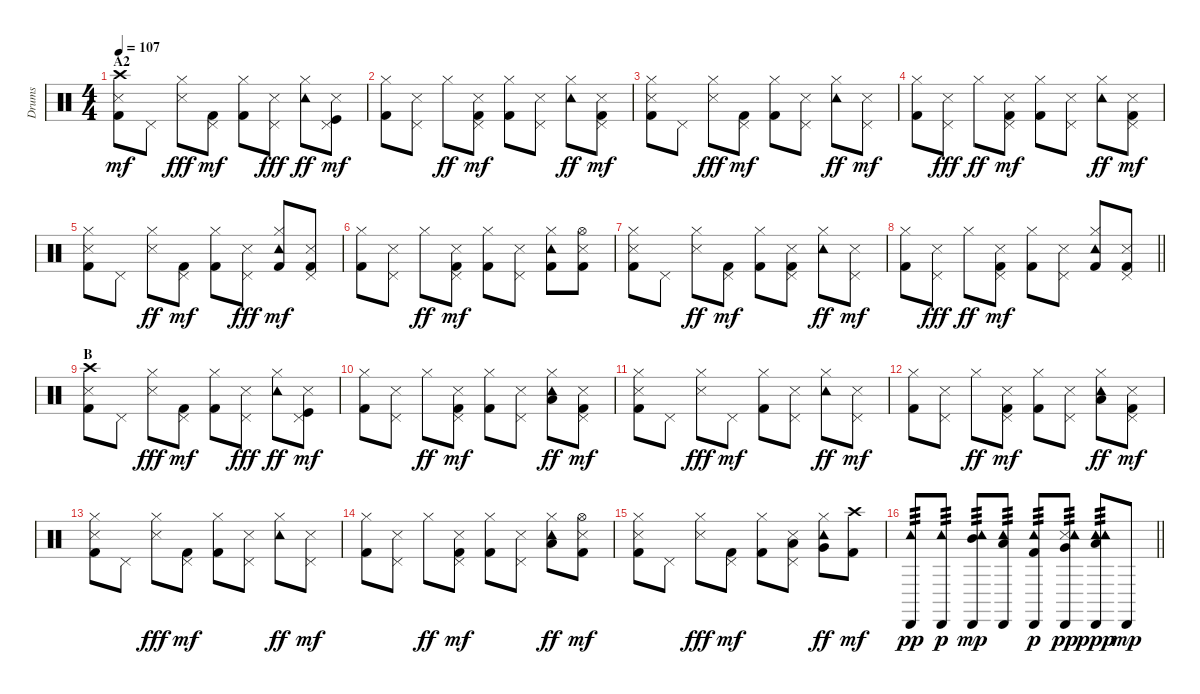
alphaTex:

\track ("Drums" "Drums") {instrument percussion}
\staff {score}
\articulation defaults
\ts (4 4)
\section ("" "A2")
\tempo 107
\clef neutral
\ks c
("Crash high (hit)" "Snare (side stick) 3" "Kick (hit) 2").8{dy mf} "Pedal Hi-Hat (hit)".8 ("Hi-Hat (closed)" "Snare (side stick) 3").8{dy fff} ("Pedal Hi-Hat (hit)" "Kick (hit) 2").8{dy mf} ("Hi-Hat (closed)" "Kick (hit) 2").8 ("Pedal Hi-Hat (hit)" "Snare (side stick) 3").8{dy fff} ("Hi-Hat (closed)" "Tambourine (hit)").8{dy ff} ("Pedal Hi-Hat (hit)" "Snare (side stick) 3" "Kick (hit)").8{dy mf} |
("Hi-Hat (closed)" "Kick (hit) 2").8 ("Pedal Hi-Hat (hit)" "Snare (side stick) 3").8 "Hi-Hat (closed)".8{dy ff} ("Pedal Hi-Hat (hit)" "Snare (side stick) 3" "Kick (hit) 2").8{dy mf} ("Hi-Hat (closed)" "Kick (hit) 2").8 ("Pedal Hi-Hat (hit)" "Snare (side stick) 3").8 ("Hi-Hat (closed)" "Tambourine (hit)").8{dy ff} ("Pedal Hi-Hat (hit)" "Snare (side stick) 3" "Kick (hit) 2").8{dy mf} |
("Hi-Hat (closed)" "Snare (side stick) 3" "Kick (hit) 2").8 "Pedal Hi-Hat (hit)".8 ("Hi-Hat (closed)" "Snare (side stick) 3").8{dy fff} ("Pedal Hi-Hat (hit)" "Kick (hit) 2").8{dy mf} ("Hi-Hat (closed)" "Kick (hit) 2").8 ("Pedal Hi-Hat (hit)" "Snare (side stick) 3").8 ("Hi-Hat (closed)" "Tambourine (hit)").8{dy ff} ("Pedal Hi-Hat (hit)" "Snare (side stick) 3").8{dy mf} |
("Hi-Hat (closed)" "Kick (hit) 2").8 ("Pedal Hi-Hat (hit)" "Snare (side stick) 3").8{dy fff} "Hi-Hat (closed)".8{dy ff} ("Pedal Hi-Hat (hit)" "Snare (side stick) 3" "Kick (hit) 2").8{dy mf} ("Hi-Hat (closed)" "Kick (hit) 2").8 ("Pedal Hi-Hat (hit)" "Snare (side stick) 3").8 ("Hi-Hat (closed)" "Tambourine (hit)").8{dy ff} ("Pedal Hi-Hat (hit)" "Snare (side stick) 3" "Kick (hit) 2").8{dy mf} |
("Hi-Hat (closed)" "Snare (side stick) 3" "Kick (hit) 2").8 "Pedal Hi-Hat (hit)".8 ("Hi-Hat (closed)" "Snare (side stick) 3").8{dy ff} ("Pedal Hi-Hat (hit)" "Kick (hit) 2").8{dy mf} ("Hi-Hat (closed)" "Kick (hit) 2").8 ("Pedal Hi-Hat (hit)" "Snare (side stick) 3").8{dy fff} ("Hi-Hat (closed)" "Tambourine (hit)" "Kick (hit) 2").8{dy mf} ("Pedal Hi-Hat (hit)" "Snare (side stick) 3" "Kick (hit) 2").8 |
("Hi-Hat (closed)" "Kick (hit) 2").8 ("Pedal Hi-Hat (hit)" "Snare (side stick) 3").8 "Hi-Hat (closed)".8{dy ff} ("Pedal Hi-Hat (hit)" "Snare (side stick) 3" "Kick (hit) 2").8{dy mf} ("Hi-Hat (closed)" "Kick (hit) 2").8 ("Pedal Hi-Hat (hit)" "Snare (side stick) 3").8 ("Hi-Hat (closed)" "Tambourine (hit)" "Kick (hit) 2").8 ("Hi-Hat (open)" "Snare (side stick) 3" "Kick (hit) 2").8 |
("Hi-Hat (closed)" "Snare (side stick) 3" "Kick (hit) 2").8 "Pedal Hi-Hat (hit)".8 ("Hi-Hat (closed)" "Snare (side stick) 3").8{dy ff} ("Pedal Hi-Hat (hit)" "Kick (hit) 2").8{dy mf} ("Hi-Hat (closed)" "Kick (hit) 2").8 ("Pedal Hi-Hat (hit)" "Snare (side stick) 3" "Kick (hit) 2").8 ("Hi-Hat (closed)" "Tambourine (hit)").8{dy ff} ("Pedal Hi-Hat (hit)" "Snare (side stick) 3").8{dy mf} |
\barLineRight lightlight
("Hi-Hat (closed)" "Kick (hit) 2").8 ("Pedal Hi-Hat (hit)" "Snare (side stick) 3").8{dy fff} "Hi-Hat (closed)".8{dy ff} ("Pedal Hi-Hat (hit)" "Snare (side stick) 3" "Kick (hit) 2").8{dy mf} ("Hi-Hat (closed)" "Kick (hit) 2").8 ("Pedal Hi-Hat (hit)" "Snare (side stick) 3").8 ("Hi-Hat (closed)" "Tambourine (hit)" "Kick (hit) 2").8 ("Pedal Hi-Hat (hit)" "Snare (side stick) 3" "Kick (hit) 2").8 |
\section ("" "B")
("Crash high (hit)" "Snare (side stick) 3" "Kick (hit) 2").8 "Pedal Hi-Hat (hit)".8 ("Hi-Hat (closed)" "Snare (side stick) 3").8{dy fff} ("Pedal Hi-Hat (hit)" "Kick (hit) 2").8{dy mf} ("Hi-Hat (closed)" "Kick (hit) 2").8 ("Pedal Hi-Hat (hit)" "Snare (side stick) 3").8{dy fff} ("Hi-Hat (closed)" "Tambourine (hit)").8{dy ff} ("Pedal Hi-Hat (hit)" "Snare (side stick) 3" "Kick (hit)").8{dy mf} |
("Hi-Hat (closed)" "Kick (hit) 2").8 ("Pedal Hi-Hat (hit)" "Snare (side stick) 3").8 "Hi-Hat (closed)".8{dy ff} ("Pedal Hi-Hat (hit)" "Snare (side stick) 3" "Kick (hit) 2").8{dy mf} ("Hi-Hat (closed)" "Kick (hit) 2").8 ("Pedal Hi-Hat (hit)" "Snare (side stick) 3").8 ("Hi-Hat (closed)" "Low Floor Tom (hit)" "Tambourine (hit)").8{dy ff} ("Pedal Hi-Hat (hit)" "Snare (side stick) 3" "Kick (hit) 2").8{dy mf} |
("Hi-Hat (closed)" "Snare (side stick) 3" "Kick (hit) 2").8 "Pedal Hi-Hat (hit)".8 ("Hi-Hat (closed)" "Snare (side stick) 3").8{dy fff} "Pedal Hi-Hat (hit)".8{dy mf} ("Hi-Hat (closed)" "Kick (hit) 2").8 ("Pedal Hi-Hat (hit)" "Snare (side stick) 3").8 ("Hi-Hat (closed)" "Tambourine (hit)").8{dy ff} ("Pedal Hi-Hat (hit)" "Snare (side stick) 3").8{dy mf} |
("Hi-Hat (closed)" "Kick (hit) 2").8 ("Pedal Hi-Hat (hit)" "Snare (side stick) 3").8 "Hi-Hat (closed)".8{dy ff} ("Pedal Hi-Hat (hit)" "Snare (side stick) 3" "Kick (hit) 2").8{dy mf} ("Hi-Hat (closed)" "Kick (hit) 2").8 ("Pedal Hi-Hat (hit)" "Snare (side stick) 3").8 ("Hi-Hat (closed)" "Low Floor Tom (hit)" "Tambourine (hit)").8{dy ff} ("Pedal Hi-Hat (hit)" "Snare (side stick) 3" "Kick (hit) 2").8{dy mf} |
("Hi-Hat (closed)" "Snare (side stick) 3" "Kick (hit) 2").8 "Pedal Hi-Hat (hit)".8 ("Hi-Hat (closed)" "Snare (side stick) 3").8{dy fff} ("Pedal Hi-Hat (hit)" "Kick (hit) 2").8{dy mf} ("Hi-Hat (closed)" "Kick (hit) 2").8 ("Pedal Hi-Hat (hit)" "Snare (side stick) 3").8 ("Hi-Hat (closed)" "Tambourine (hit)").8{dy ff} ("Pedal Hi-Hat (hit)" "Snare (side stick) 3").8{dy mf} |
("Hi-Hat (closed)" "Kick (hit) 2").8 ("Pedal Hi-Hat (hit)" "Snare (side stick) 3").8 "Hi-Hat (closed)".8{dy ff} ("Pedal Hi-Hat (hit)" "Snare (side stick) 3" "Kick (hit) 2").8{dy mf} ("Hi-Hat (closed)" "Kick (hit) 2").8 ("Pedal Hi-Hat (hit)" "Snare (side stick) 3").8 ("Hi-Hat (closed)" "Low Floor Tom (hit)" "Tambourine (hit)").8{dy ff} ("Hi-Hat (open)" "Snare (side stick) 3" "Kick (hit) 2").8{dy mf} |
("Hi-Hat (closed)" "Snare (side stick) 3" "Kick (hit) 2").8 "Pedal Hi-Hat (hit)".8 ("Hi-Hat (closed)" "Snare (side stick) 3").8{dy fff} ("Pedal Hi-Hat (hit)" "Kick (hit) 2").8{dy mf} ("Hi-Hat (closed)" "Kick (hit) 2").8 ("Pedal Hi-Hat (hit)" "Low Tom (hit)" "Snare (side stick) 3").8 ("Hi-Hat (closed)" "Very Low Tom (hit)" "Tambourine (hit)").8{dy ff} ("Crash high (hit)" "Kick (hit) 2").8{dy mf} |
\barLineRight lightlight
("Cabasa (hit)" "Tambourine (hit)").8{tp 3 dy pp} ("Cabasa (hit)" "Tambourine (hit)").8{tp 3 dy p} ("Cabasa (hit)" "Mid Tom (hit)" "Tambourine (hit)").8{tp 3 dy mp} ("Cabasa (hit)" "Low Tom (hit)" "Tambourine (hit)").8{tp 3} ("Cabasa (hit)" "Kick (hit) 2" "Tambourine (hit)").8{tp 3 dy p} ("Cabasa (hit)" "Very Low Tom (hit)" "Snare (side stick) 3" "Tambourine (hit)").8{tp 3 dy pp} ("Cabasa (hit)" "Low Floor Tom (hit)" "Tambourine (hit)" "Tambourine (hit)").8{tp 3 dy ppp} "Cabasa (hit)".8{dy mp}
